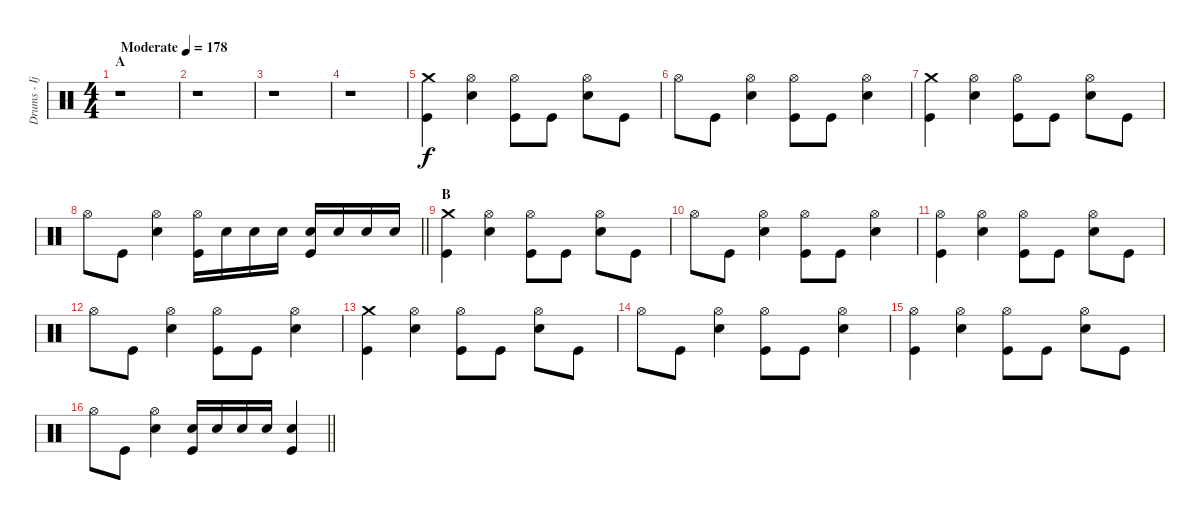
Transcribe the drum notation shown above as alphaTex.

\track ("Drums - Ijichi" "Drums - Ij") {instrument percussion}
\staff {score}
\articulation defaults
\ts (4 4)
\section ("" "A")
\tempo (178 "Moderate")
\clef neutral
\ks c
r.1{dy f} |
r.1 |
r.1 |
r.1 |
("Crash medium (hit)" "Kick (hit)").4 ("Hi-Hat (open)" "Electric Snare (hit)").4 ("Hi-Hat (open)" "Kick (hit)").8 "Kick (hit)".8 ("Hi-Hat (open)" "Electric Snare (hit)").8 "Kick (hit)".8 |
"Hi-Hat (open)".8 "Kick (hit)".8 ("Hi-Hat (open)" "Electric Snare (hit)").4 ("Hi-Hat (open)" "Kick (hit)").8 "Kick (hit)".8 ("Hi-Hat (open)" "Electric Snare (hit)").4 |
("Crash medium (hit)" "Kick (hit)").4 ("Hi-Hat (open)" "Electric Snare (hit)").4 ("Hi-Hat (open)" "Kick (hit)").8 "Kick (hit)".8 ("Hi-Hat (open)" "Electric Snare (hit)").8 "Kick (hit)".8 |
\barLineRight lightlight "Hi-Hat (open)".8 "Kick (hit)".8
("Hi-Hat (open)" "Electric Snare (hit)").4 ("Hi-Hat (open)" "Kick (hit)").16 "Electric Snare (hit)".16 "Electric Snare (hit)".16 "Electric Snare (hit)".16 ("Electric Snare (hit)" "Kick (hit)").16 "Electric Snare (hit)".16 "Electric Snare (hit)".16 "Electric Snare (hit)".16 |
\section ("" "B")
("Crash medium (hit)" "Kick (hit)").4 ("Hi-Hat (open)" "Electric Snare (hit)").4 ("Hi-Hat (open)" "Kick (hit)").8 "Kick (hit)".8 ("Hi-Hat (open)" "Electric Snare (hit)").8 "Kick (hit)".8 |
"Hi-Hat (open)".8 "Kick (hit)".8 ("Hi-Hat (open)" "Electric Snare (hit)").4 ("Hi-Hat (open)" "Kick (hit)").8 "Kick (hit)".8 ("Hi-Hat (open)" "Electric Snare (hit)").4 |
("Hi-Hat (open)" "Kick (hit)").4 ("Hi-Hat (open)" "Electric Snare (hit)").4 ("Hi-Hat (open)" "Kick (hit)").8 "Kick (hit)".8 ("Hi-Hat (open)" "Electric Snare (hit)").8 "Kick (hit)".8 |
"Hi-Hat (open)".8 "Kick (hit)".8 ("Hi-Hat (open)" "Electric Snare (hit)").4 ("Hi-Hat (open)" "Kick (hit)").8 "Kick (hit)".8 ("Hi-Hat (open)" "Electric Snare (hit)").4 |
("Crash medium (hit)" "Kick (hit)").4 ("Hi-Hat (open)" "Electric Snare (hit)").4 ("Hi-Hat (open)" "Kick (hit)").8 "Kick (hit)".8 ("Hi-Hat (open)" "Electric Snare (hit)").8 "Kick (hit)".8 |
"Hi-Hat (open)".8 "Kick (hit)".8 ("Hi-Hat (open)" "Electric Snare (hit)").4 ("Hi-Hat (open)" "Kick (hit)").8 "Kick (hit)".8 ("Hi-Hat (open)" "Electric Snare (hit)").4 |
("Hi-Hat (open)" "Kick (hit)").4 ("Hi-Hat (open)" "Electric Snare (hit)").4 ("Hi-Hat (open)" "Kick (hit)").8 "Kick (hit)".8 ("Hi-Hat (open)" "Electric Snare (hit)").8 "Kick (hit)".8 |
\barLineRight lightlight "Hi-Hat (open)".8 "Kick (hit)".8
("Hi-Hat (open)" "Electric Snare (hit)").4 ("Electric Snare (hit)" "Kick (hit)").16 "Electric Snare (hit)".16 "Electric Snare (hit)".16 "Electric Snare (hit)".16 ("Electric Snare (hit)" "Kick (hit)").4
